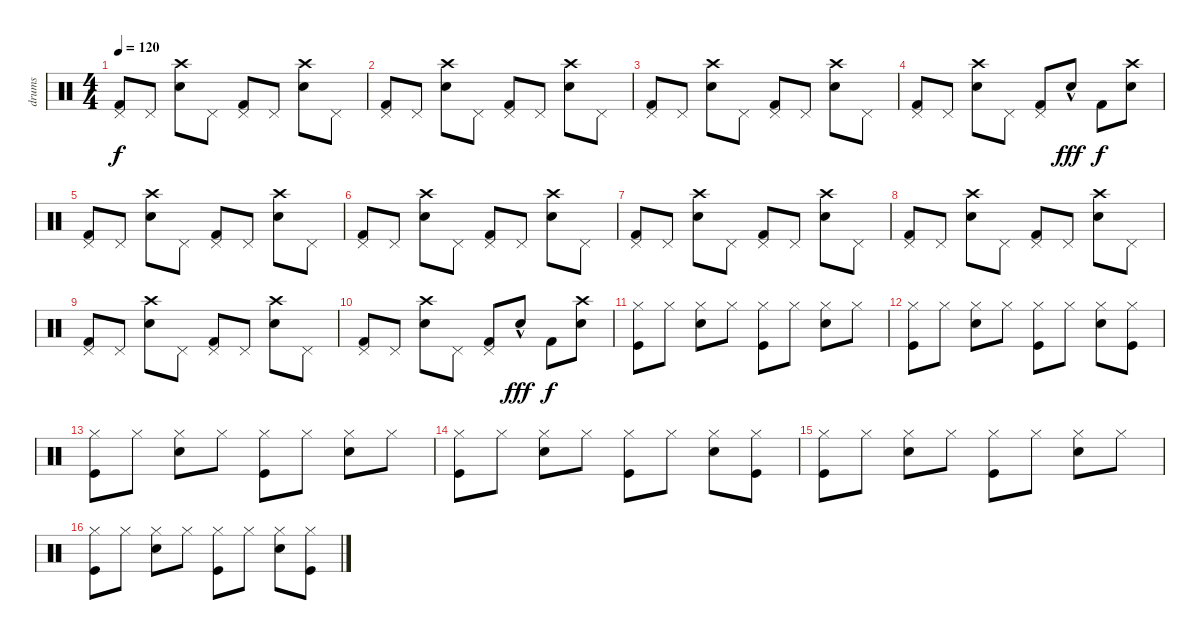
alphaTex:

\track ("drums" "drums") {instrument percussion}
\staff {score}
\articulation defaults
\ts (4 4)
\tempo 120
\clef neutral
\ks c
("Pedal Hi-Hat (hit)" "Kick (hit) 2").8{dy f} "Pedal Hi-Hat (hit)".8 ("Crash high (hit)" "Electric Snare (hit)").8 "Pedal Hi-Hat (hit)".8 ("Pedal Hi-Hat (hit)" "Kick (hit) 2").8 "Pedal Hi-Hat (hit)".8 ("Crash high (hit)" "Electric Snare (hit)").8 "Pedal Hi-Hat (hit)".8 |
("Pedal Hi-Hat (hit)" "Kick (hit) 2").8 "Pedal Hi-Hat (hit)".8 ("Crash high (hit)" "Electric Snare (hit)").8 "Pedal Hi-Hat (hit)".8 ("Pedal Hi-Hat (hit)" "Kick (hit) 2").8 "Pedal Hi-Hat (hit)".8 ("Crash high (hit)" "Electric Snare (hit)").8 "Pedal Hi-Hat (hit)".8 |
("Pedal Hi-Hat (hit)" "Kick (hit) 2").8 "Pedal Hi-Hat (hit)".8 ("Crash high (hit)" "Electric Snare (hit)").8 "Pedal Hi-Hat (hit)".8 ("Pedal Hi-Hat (hit)" "Kick (hit) 2").8 "Pedal Hi-Hat (hit)".8 ("Crash high (hit)" "Electric Snare (hit)").8 "Pedal Hi-Hat (hit)".8 |
("Pedal Hi-Hat (hit)" "Kick (hit) 2").8 "Pedal Hi-Hat (hit)".8 ("Crash high (hit)" "Electric Snare (hit)").8 "Pedal Hi-Hat (hit)".8 ("Pedal Hi-Hat (hit)" "Kick (hit) 2").8 "Electric Snare (hit)"{hac}.8{dy fff} "Kick (hit) 2".8{dy f} ("Crash high (hit)" "Electric Snare (hit)").8 |
("Pedal Hi-Hat (hit)" "Kick (hit) 2").8 "Pedal Hi-Hat (hit)".8 ("Crash high (hit)" "Electric Snare (hit)").8 "Pedal Hi-Hat (hit)".8 ("Pedal Hi-Hat (hit)" "Kick (hit) 2").8 "Pedal Hi-Hat (hit)".8 ("Crash high (hit)" "Electric Snare (hit)").8 "Pedal Hi-Hat (hit)".8 |
("Pedal Hi-Hat (hit)" "Kick (hit) 2").8 "Pedal Hi-Hat (hit)".8 ("Crash high (hit)" "Electric Snare (hit)").8 "Pedal Hi-Hat (hit)".8 ("Pedal Hi-Hat (hit)" "Kick (hit) 2").8 "Pedal Hi-Hat (hit)".8 ("Crash high (hit)" "Electric Snare (hit)").8 "Pedal Hi-Hat (hit)".8 |
("Pedal Hi-Hat (hit)" "Kick (hit) 2").8 "Pedal Hi-Hat (hit)".8 ("Crash high (hit)" "Electric Snare (hit)").8 "Pedal Hi-Hat (hit)".8 ("Pedal Hi-Hat (hit)" "Kick (hit) 2").8 "Pedal Hi-Hat (hit)".8 ("Crash high (hit)" "Electric Snare (hit)").8 "Pedal Hi-Hat (hit)".8 |
("Pedal Hi-Hat (hit)" "Kick (hit) 2").8 "Pedal Hi-Hat (hit)".8 ("Crash high (hit)" "Electric Snare (hit)").8 "Pedal Hi-Hat (hit)".8 ("Pedal Hi-Hat (hit)" "Kick (hit) 2").8 "Pedal Hi-Hat (hit)".8 ("Crash high (hit)" "Electric Snare (hit)").8 "Pedal Hi-Hat (hit)".8 |
("Pedal Hi-Hat (hit)" "Kick (hit) 2").8 "Pedal Hi-Hat (hit)".8 ("Crash high (hit)" "Electric Snare (hit)").8 "Pedal Hi-Hat (hit)".8 ("Pedal Hi-Hat (hit)" "Kick (hit) 2").8 "Pedal Hi-Hat (hit)".8 ("Crash high (hit)" "Electric Snare (hit)").8 "Pedal Hi-Hat (hit)".8 |
("Pedal Hi-Hat (hit)" "Kick (hit) 2").8 "Pedal Hi-Hat (hit)".8 ("Crash high (hit)" "Electric Snare (hit)").8 "Pedal Hi-Hat (hit)".8 ("Pedal Hi-Hat (hit)" "Kick (hit) 2").8 "Electric Snare (hit)"{hac}.8{dy fff} "Kick (hit) 2".8{dy f} ("Crash high (hit)" "Electric Snare (hit)").8 |
("Hi-Hat (closed)" "Kick (hit)").8 "Hi-Hat (closed)".8 ("Hi-Hat (closed)" "Snare (hit) 2").8 "Hi-Hat (closed)".8 ("Hi-Hat (closed)" "Kick (hit)").8 "Hi-Hat (closed)".8 ("Hi-Hat (closed)" "Snare (hit) 2").8 "Hi-Hat (closed)".8 |
("Hi-Hat (closed)" "Kick (hit)").8 "Hi-Hat (closed)".8 ("Hi-Hat (closed)" "Snare (hit) 2").8 "Hi-Hat (closed)".8 ("Hi-Hat (closed)" "Kick (hit)").8 "Hi-Hat (closed)".8 ("Hi-Hat (closed)" "Snare (hit) 2").8 ("Hi-Hat (closed)" "Kick (hit)").8 |
("Hi-Hat (closed)" "Kick (hit)").8 "Hi-Hat (closed)".8 ("Hi-Hat (closed)" "Snare (hit) 2").8 "Hi-Hat (closed)".8 ("Hi-Hat (closed)" "Kick (hit)").8 "Hi-Hat (closed)".8 ("Hi-Hat (closed)" "Snare (hit) 2").8 "Hi-Hat (closed)".8 |
("Hi-Hat (closed)" "Kick (hit)").8 "Hi-Hat (closed)".8 ("Hi-Hat (closed)" "Snare (hit) 2").8 "Hi-Hat (closed)".8 ("Hi-Hat (closed)" "Kick (hit)").8 "Hi-Hat (closed)".8 ("Hi-Hat (closed)" "Snare (hit) 2").8 ("Hi-Hat (closed)" "Kick (hit)").8 |
("Hi-Hat (closed)" "Kick (hit)").8 "Hi-Hat (closed)".8 ("Hi-Hat (closed)" "Snare (hit) 2").8 "Hi-Hat (closed)".8 ("Hi-Hat (closed)" "Kick (hit)").8 "Hi-Hat (closed)".8 ("Hi-Hat (closed)" "Snare (hit) 2").8 "Hi-Hat (closed)".8 |
("Hi-Hat (closed)" "Kick (hit)").8 "Hi-Hat (closed)".8 ("Hi-Hat (closed)" "Snare (hit) 2").8 "Hi-Hat (closed)".8 ("Hi-Hat (closed)" "Kick (hit)").8 "Hi-Hat (closed)".8 ("Hi-Hat (closed)" "Snare (hit) 2").8 ("Hi-Hat (closed)" "Kick (hit)").8
